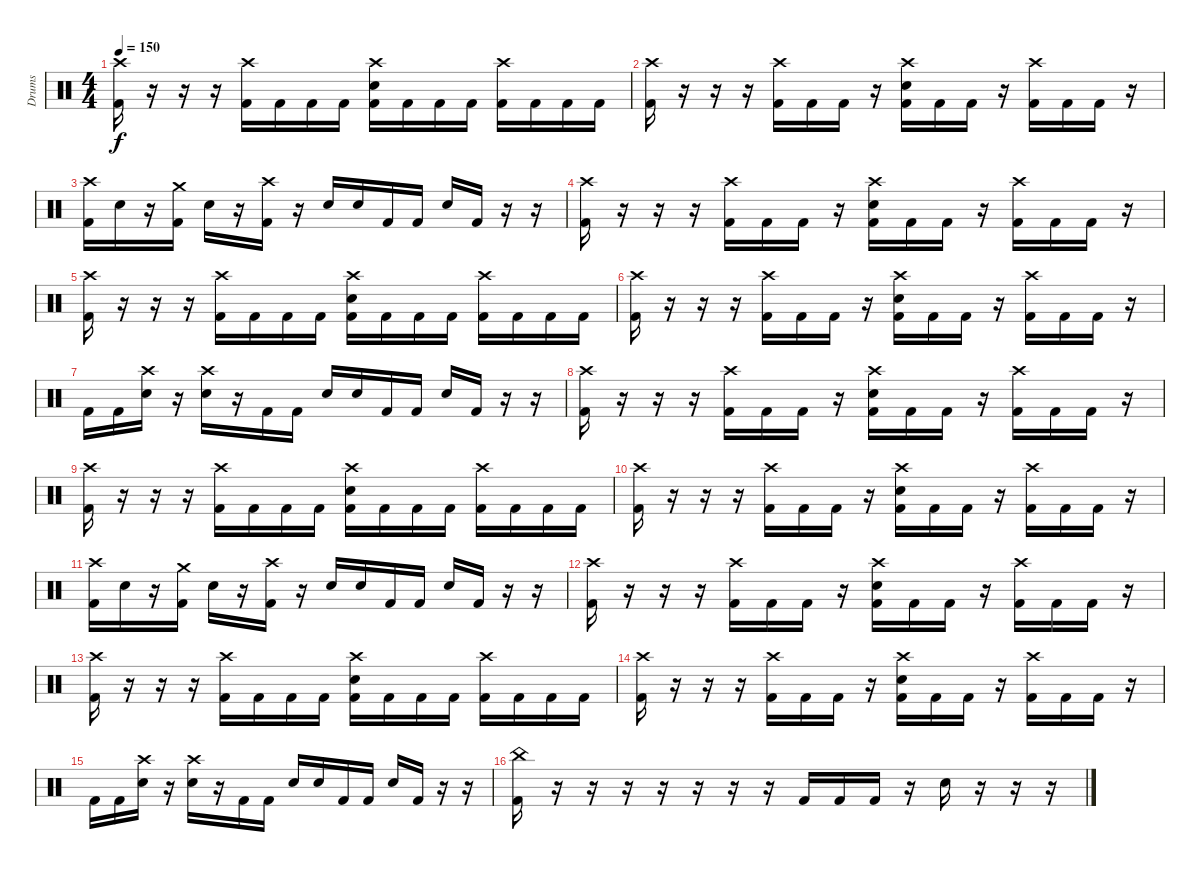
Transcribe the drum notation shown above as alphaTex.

\track ("Drums" "Drums") {instrument percussion}
\staff {score}
\articulation defaults
\ts (4 4)
\tempo 150
\clef neutral
\ks c
("Crash high (hit)" "Kick (hit) 2").16{dy f} r.16 r.16 r.16 ("Crash high (hit)" "Kick (hit) 2").16 "Kick (hit) 2".16 "Kick (hit) 2".16 "Kick (hit) 2".16 ("Crash high (hit)" "Snare (hit) 2" "Kick (hit) 2").16 "Kick (hit) 2".16 "Kick (hit) 2".16 "Kick (hit) 2".16 ("Crash high (hit)" "Kick (hit) 2").16 "Kick (hit) 2".16 "Kick (hit) 2".16 "Kick (hit) 2".16 |
("Crash high (hit)" "Kick (hit) 2").16 r.16 r.16 r.16 ("Crash high (hit)" "Kick (hit) 2").16 "Kick (hit) 2".16 "Kick (hit) 2".16 r.16 ("Crash high (hit)" "Snare (hit) 2" "Kick (hit) 2").16 "Kick (hit) 2".16 "Kick (hit) 2".16 r.16 ("Crash high (hit)" "Kick (hit) 2").16 "Kick (hit) 2".16 "Kick (hit) 2".16 r.16 |
("Crash high (hit)" "Kick (hit) 2").16 "Snare (hit) 2".16 r.16 ("Crash medium (hit)" "Kick (hit) 2").16 "Snare (hit) 2".16 r.16 ("Crash high (hit)" "Kick (hit) 2").16 r.16 "Snare (hit) 2".16 "Snare (hit) 2".16 "Kick (hit) 2".16 "Kick (hit) 2".16 "Snare (hit) 2".16 "Kick (hit) 2".16 r.16 r.16 |
("Crash high (hit)" "Kick (hit) 2").16 r.16 r.16 r.16 ("Crash high (hit)" "Kick (hit) 2").16 "Kick (hit) 2".16 "Kick (hit) 2".16 r.16 ("Crash high (hit)" "Snare (hit) 2" "Kick (hit) 2").16 "Kick (hit) 2".16 "Kick (hit) 2".16 r.16 ("Crash high (hit)" "Kick (hit) 2").16 "Kick (hit) 2".16 "Kick (hit) 2".16 r.16 |
("Crash high (hit)" "Kick (hit) 2").16 r.16 r.16 r.16 ("Crash high (hit)" "Kick (hit) 2").16 "Kick (hit) 2".16 "Kick (hit) 2".16 "Kick (hit) 2".16 ("Crash high (hit)" "Snare (hit) 2" "Kick (hit) 2").16 "Kick (hit) 2".16 "Kick (hit) 2".16 "Kick (hit) 2".16 ("Crash high (hit)" "Kick (hit) 2").16 "Kick (hit) 2".16 "Kick (hit) 2".16 "Kick (hit) 2".16 |
("Crash high (hit)" "Kick (hit) 2").16 r.16 r.16 r.16 ("Crash high (hit)" "Kick (hit) 2").16 "Kick (hit) 2".16 "Kick (hit) 2".16 r.16 ("Crash high (hit)" "Snare (hit) 2" "Kick (hit) 2").16 "Kick (hit) 2".16 "Kick (hit) 2".16 r.16 ("Crash high (hit)" "Kick (hit) 2").16 "Kick (hit) 2".16 "Kick (hit) 2".16 r.16 |
"Kick (hit) 2".16 "Kick (hit) 2".16 ("Crash high (hit)" "Snare (hit) 2").16 r.16 ("Crash high (hit)" "Snare (hit) 2").16 r.16 "Kick (hit) 2".16 "Kick (hit) 2".16 "Snare (hit) 2".16 "Snare (hit) 2".16 "Kick (hit) 2".16 "Kick (hit) 2".16 "Snare (hit) 2".16 "Kick (hit) 2".16 r.16 r.16 |
("Crash high (hit)" "Kick (hit) 2").16 r.16 r.16 r.16 ("Crash high (hit)" "Kick (hit) 2").16 "Kick (hit) 2".16 "Kick (hit) 2".16 r.16 ("Crash high (hit)" "Snare (hit) 2" "Kick (hit) 2").16 "Kick (hit) 2".16 "Kick (hit) 2".16 r.16 ("Crash high (hit)" "Kick (hit) 2").16 "Kick (hit) 2".16 "Kick (hit) 2".16 r.16 |
("Crash high (hit)" "Kick (hit) 2").16 r.16 r.16 r.16 ("Crash high (hit)" "Kick (hit) 2").16 "Kick (hit) 2".16 "Kick (hit) 2".16 "Kick (hit) 2".16 ("Crash high (hit)" "Snare (hit) 2" "Kick (hit) 2").16 "Kick (hit) 2".16 "Kick (hit) 2".16 "Kick (hit) 2".16 ("Crash high (hit)" "Kick (hit) 2").16 "Kick (hit) 2".16 "Kick (hit) 2".16 "Kick (hit) 2".16 |
("Crash high (hit)" "Kick (hit) 2").16 r.16 r.16 r.16 ("Crash high (hit)" "Kick (hit) 2").16 "Kick (hit) 2".16 "Kick (hit) 2".16 r.16 ("Crash high (hit)" "Snare (hit) 2" "Kick (hit) 2").16 "Kick (hit) 2".16 "Kick (hit) 2".16 r.16 ("Crash high (hit)" "Kick (hit) 2").16 "Kick (hit) 2".16 "Kick (hit) 2".16 r.16 |
("Crash high (hit)" "Kick (hit) 2").16 "Snare (hit) 2".16 r.16 ("Crash medium (hit)" "Kick (hit) 2").16 "Snare (hit) 2".16 r.16 ("Crash high (hit)" "Kick (hit) 2").16 r.16 "Snare (hit) 2".16 "Snare (hit) 2".16 "Kick (hit) 2".16 "Kick (hit) 2".16 "Snare (hit) 2".16 "Kick (hit) 2".16 r.16 r.16 |
("Crash high (hit)" "Kick (hit) 2").16 r.16 r.16 r.16 ("Crash high (hit)" "Kick (hit) 2").16 "Kick (hit) 2".16 "Kick (hit) 2".16 r.16 ("Crash high (hit)" "Snare (hit) 2" "Kick (hit) 2").16 "Kick (hit) 2".16 "Kick (hit) 2".16 r.16 ("Crash high (hit)" "Kick (hit) 2").16 "Kick (hit) 2".16 "Kick (hit) 2".16 r.16 |
("Crash high (hit)" "Kick (hit) 2").16 r.16 r.16 r.16 ("Crash high (hit)" "Kick (hit) 2").16 "Kick (hit) 2".16 "Kick (hit) 2".16 "Kick (hit) 2".16 ("Crash high (hit)" "Snare (hit) 2" "Kick (hit) 2").16 "Kick (hit) 2".16 "Kick (hit) 2".16 "Kick (hit) 2".16 ("Crash high (hit)" "Kick (hit) 2").16 "Kick (hit) 2".16 "Kick (hit) 2".16 "Kick (hit) 2".16 |
("Crash high (hit)" "Kick (hit) 2").16 r.16 r.16 r.16 ("Crash high (hit)" "Kick (hit) 2").16 "Kick (hit) 2".16 "Kick (hit) 2".16 r.16 ("Crash high (hit)" "Snare (hit) 2" "Kick (hit) 2").16 "Kick (hit) 2".16 "Kick (hit) 2".16 r.16 ("Crash high (hit)" "Kick (hit) 2").16 "Kick (hit) 2".16 "Kick (hit) 2".16 r.16 |
"Kick (hit) 2".16 "Kick (hit) 2".16 ("Crash high (hit)" "Snare (hit) 2").16 r.16 ("Crash high (hit)" "Snare (hit) 2").16 r.16 "Kick (hit) 2".16 "Kick (hit) 2".16 "Snare (hit) 2".16 "Snare (hit) 2".16 "Kick (hit) 2".16 "Kick (hit) 2".16 "Snare (hit) 2".16 "Kick (hit) 2".16 r.16 r.16 |
("China (hit)" "Kick (hit) 2").16 r.16 r.16 r.16 r.16 r.16 r.16 r.16 "Kick (hit) 2".16 "Kick (hit) 2".16 "Kick (hit) 2".16 r.16 "Snare (hit) 2".16 r.16 r.16 r.16
